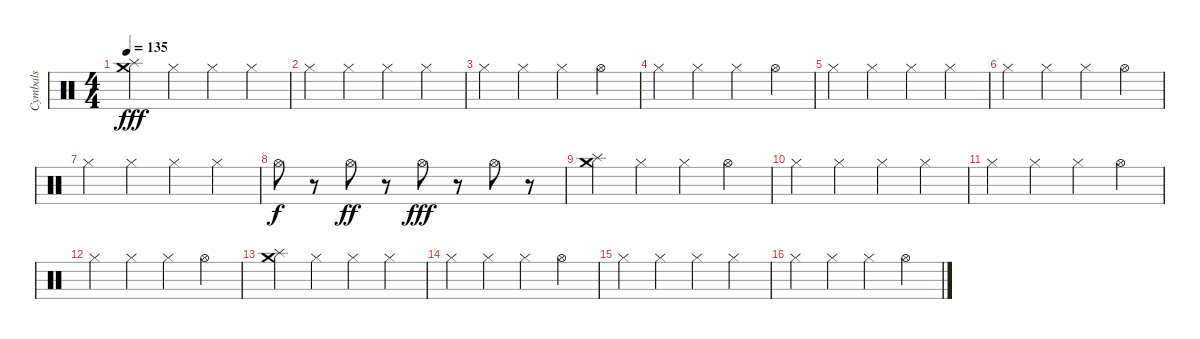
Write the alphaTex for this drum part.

\track ("Cymbals" "Cymbals") {instrument percussion}
\staff {score}
\articulation defaults
\ts (4 4)
\tempo 135
\clef neutral
\ks c
("Crash medium (hit)" "Splash (hit)").4{dy fff} "Hi-Hat (closed)".4 "Hi-Hat (closed)".4 "Hi-Hat (closed)".4 |
"Hi-Hat (closed)".4 "Hi-Hat (closed)".4 "Hi-Hat (closed)".4 "Hi-Hat (closed)".4 |
"Hi-Hat (closed)".4 "Hi-Hat (closed)".4 "Hi-Hat (closed)".4 "Hi-Hat (open)".4 |
"Hi-Hat (closed)".4 "Hi-Hat (closed)".4 "Hi-Hat (closed)".4 "Hi-Hat (open)".4 |
"Hi-Hat (closed)".4 "Hi-Hat (closed)".4 "Hi-Hat (closed)".4 "Hi-Hat (closed)".4 |
"Hi-Hat (closed)".4 "Hi-Hat (closed)".4 "Hi-Hat (closed)".4 "Hi-Hat (open)".4 |
"Hi-Hat (closed)".4 "Hi-Hat (closed)".4 "Hi-Hat (closed)".4 "Hi-Hat (closed)".4 |
"Hi-Hat (open)".8{dy f} r.8 "Hi-Hat (open)".8{dy ff} r.8 "Hi-Hat (open)".8{dy fff} r.8 "Hi-Hat (open)".8 r.8 |
("Crash medium (hit)" "Splash (hit)").4 "Hi-Hat (closed)".4 "Hi-Hat (closed)".4 "Hi-Hat (open)".4 |
"Hi-Hat (closed)".4 "Hi-Hat (closed)".4 "Hi-Hat (closed)".4 "Hi-Hat (closed)".4 |
"Hi-Hat (closed)".4 "Hi-Hat (closed)".4 "Hi-Hat (closed)".4 "Hi-Hat (open)".4 |
"Hi-Hat (closed)".4 "Hi-Hat (closed)".4 "Hi-Hat (closed)".4 "Hi-Hat (open)".4 |
("Crash medium (hit)" "Splash (hit)").4 "Hi-Hat (closed)".4 "Hi-Hat (closed)".4 "Hi-Hat (closed)".4 |
"Hi-Hat (closed)".4 "Hi-Hat (closed)".4 "Hi-Hat (closed)".4 "Hi-Hat (open)".4 |
"Hi-Hat (closed)".4 "Hi-Hat (closed)".4 "Hi-Hat (closed)".4 "Hi-Hat (closed)".4 |
"Hi-Hat (closed)".4 "Hi-Hat (closed)".4 "Hi-Hat (closed)".4 "Hi-Hat (open)".4
